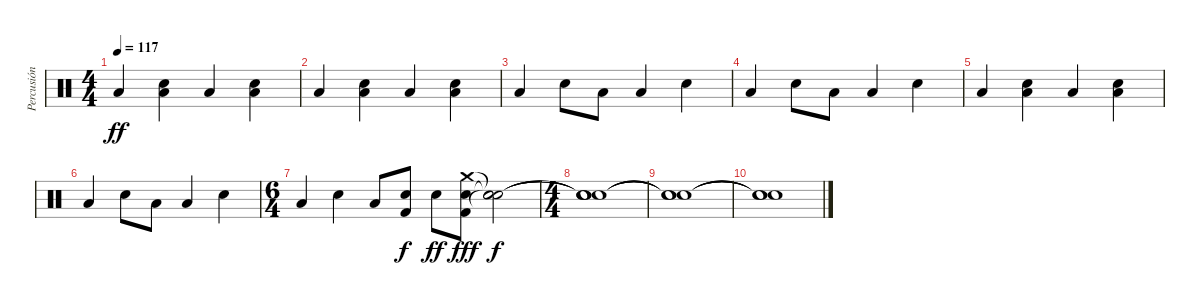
\track ("Percusión" "Percusión") {instrument percussion}
\staff {score}
\articulation defaults
\ts (4 4)
\tempo 117
\clef neutral
\ks c "Low Floor Tom (hit)".4{dy ff}
("Snare (hit) 2" "Low Floor Tom (hit)").4 "Low Floor Tom (hit)".4 ("Snare (hit) 2" "Low Floor Tom (hit)").4 |
"Low Floor Tom (hit)".4 ("Snare (hit) 2" "Low Floor Tom (hit)").4 "Low Floor Tom (hit)".4 ("Snare (hit) 2" "Low Floor Tom (hit)").4 |
"Low Floor Tom (hit)".4 "Snare (hit) 2".8 "Low Floor Tom (hit)".8 "Low Floor Tom (hit)".4 "Snare (hit) 2".4 |
"Low Floor Tom (hit)".4 "Snare (hit) 2".8 "Low Floor Tom (hit)".8 "Low Floor Tom (hit)".4 "Snare (hit) 2".4 |
"Low Floor Tom (hit)".4 ("Snare (hit) 2" "Low Floor Tom (hit)").4 "Low Floor Tom (hit)".4 ("Snare (hit) 2" "Low Floor Tom (hit)").4 |
"Low Floor Tom (hit)".4 "Snare (hit) 2".8 "Low Floor Tom (hit)".8 "Low Floor Tom (hit)".4 "Snare (hit) 2".4 |
\ts (6 4)
"Low Floor Tom (hit)".4 "Snare (hit) 2".4 "Low Floor Tom (hit)".8 ("Snare (hit) 2" "Kick (hit) 2").8{dy f} "Snare (hit) 2".8{dy ff} ("Snare (hit) 2" "Kick (hit) 2" "Crash medium (hit)").8{dy fff} ("Snare (hit)"{t} "Snare (hit)"{t} "Snare (hit)"{t}).2{dy f} |
\ts (4 4)
("Snare (hit)"{t} "Snare (hit)"{t} "Snare (hit)"{t} "Snare (hit)").1 |
("Snare (hit)"{t} "Snare (hit)"{t} "Snare (hit)"{t}).1 |
("Snare (hit)"{t} "Snare (hit)"{t} "Snare (hit)"{t}).1
